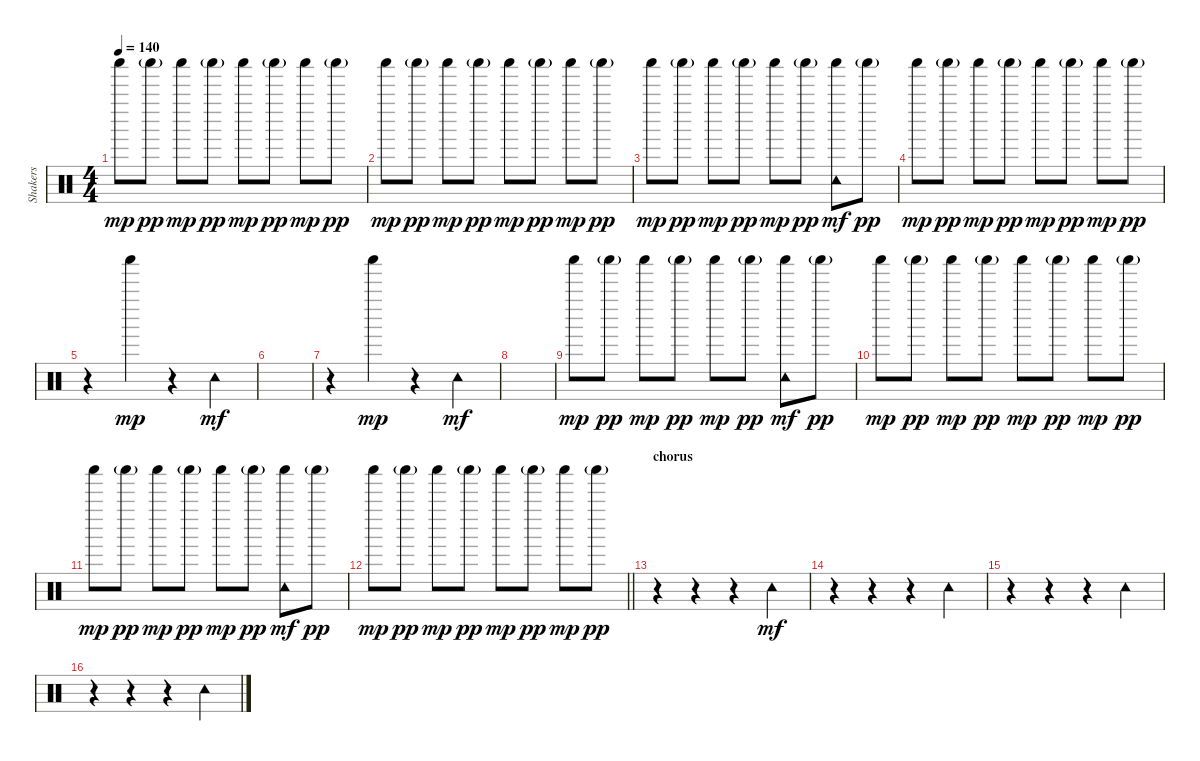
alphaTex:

\track ("Shakers" "Shakers") {instrument percussion}
\staff {score}
\articulation defaults
\ts (4 4)
\tempo 140
\clef neutral
\ks c "Shaker (hit)".8{dy mp} "Shaker (hit)"{g}.8{dy pp} "Shaker (hit)".8{dy mp} "Shaker (hit)"{g}.8{dy pp} "Shaker (hit)".8{dy mp} "Shaker (hit)"{g}.8{dy pp} "Shaker (hit)".8{dy mp} "Shaker (hit)"{g}.8{dy pp}
|
"Shaker (hit)".8{dy mp} "Shaker (hit)"{g}.8{dy pp} "Shaker (hit)".8{dy mp} "Shaker (hit)"{g}.8{dy pp} "Shaker (hit)".8{dy mp} "Shaker (hit)"{g}.8{dy pp} "Shaker (hit)".8{dy mp} "Shaker (hit)"{g}.8{dy pp} |
"Shaker (hit)".8{dy mp} "Shaker (hit)"{g}.8{dy pp} "Shaker (hit)".8{dy mp} "Shaker (hit)"{g}.8{dy pp} "Shaker (hit)".8{dy mp} "Shaker (hit)"{g}.8{dy pp} ("Shaker (hit)" "Tambourine (hit)").8{dy mf} "Shaker (hit)"{g}.8{dy pp} |
"Shaker (hit)".8{dy mp} "Shaker (hit)"{g}.8{dy pp} "Shaker (hit)".8{dy mp} "Shaker (hit)"{g}.8{dy pp} "Shaker (hit)".8{dy mp} "Shaker (hit)"{g}.8{dy pp} "Shaker (hit)".8{dy mp} "Shaker (hit)"{g}.8{dy pp} |
r.4 "Shaker (hit)".4{dy mp} r.4 "Tambourine (hit)".4{dy mf} |
|
r.4 "Shaker (hit)".4{dy mp} r.4 "Tambourine (hit)".4{dy mf} |
|
"Shaker (hit)".8{dy mp} "Shaker (hit)"{g}.8{dy pp} "Shaker (hit)".8{dy mp} "Shaker (hit)"{g}.8{dy pp} "Shaker (hit)".8{dy mp} "Shaker (hit)"{g}.8{dy pp} ("Shaker (hit)" "Tambourine (hit)").8{dy mf} "Shaker (hit)"{g}.8{dy pp} |
"Shaker (hit)".8{dy mp} "Shaker (hit)"{g}.8{dy pp} "Shaker (hit)".8{dy mp} "Shaker (hit)"{g}.8{dy pp} "Shaker (hit)".8{dy mp} "Shaker (hit)"{g}.8{dy pp} "Shaker (hit)".8{dy mp} "Shaker (hit)"{g}.8{dy pp} |
"Shaker (hit)".8{dy mp} "Shaker (hit)"{g}.8{dy pp} "Shaker (hit)".8{dy mp} "Shaker (hit)"{g}.8{dy pp} "Shaker (hit)".8{dy mp} "Shaker (hit)"{g}.8{dy pp} ("Shaker (hit)" "Tambourine (hit)").8{dy mf} "Shaker (hit)"{g}.8{dy pp} |
\barLineRight lightlight "Shaker (hit)".8{dy mp} "Shaker (hit)"{g}.8{dy pp} "Shaker (hit)".8{dy mp} "Shaker (hit)"{g}.8{dy pp} "Shaker (hit)".8{dy mp} "Shaker (hit)"{g}.8{dy pp} "Shaker (hit)".8{dy mp} "Shaker (hit)"{g}.8{dy pp}
|
\section ("" "chorus")
r.4 r.4 r.4 "Tambourine (hit)".4{dy mf} |
r.4 r.4 r.4 "Tambourine (hit)".4 |
r.4 r.4 r.4 "Tambourine (hit)".4 |
r.4 r.4 r.4 "Tambourine (hit)".4
